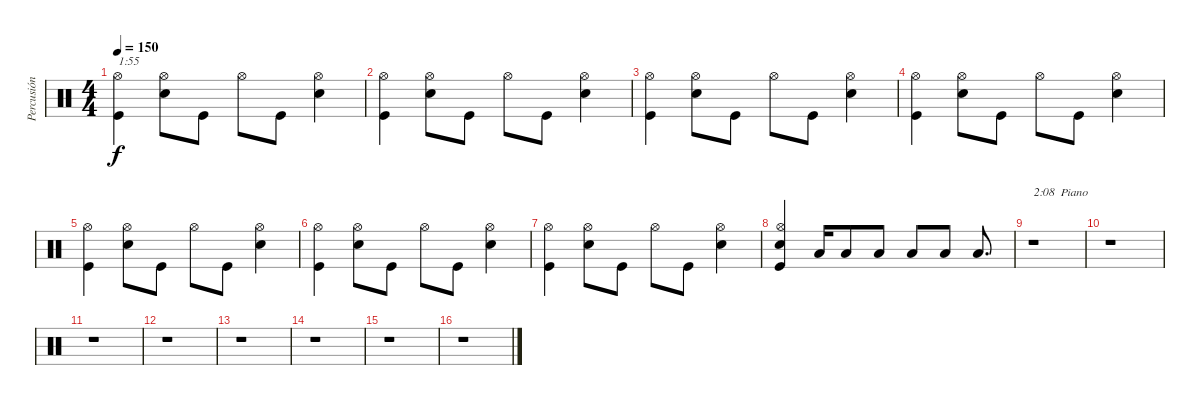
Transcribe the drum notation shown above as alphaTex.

\track ("Percusión" "Percusión") {instrument percussion}
\staff {score}
\articulation defaults
\ts (4 4)
\tempo 150
\clef neutral
\ks c
("Kick (hit)" "Hi-Hat (open)").4{txt "1:55" dy f} ("Snare (hit) 2" "Hi-Hat (open)").8 "Kick (hit)".8 "Hi-Hat (open)".8 "Kick (hit)".8 ("Snare (hit) 2" "Hi-Hat (open)").4 |
("Kick (hit)" "Hi-Hat (open)").4 ("Snare (hit) 2" "Hi-Hat (open)").8 "Kick (hit)".8 "Hi-Hat (open)".8 "Kick (hit)".8 ("Snare (hit) 2" "Hi-Hat (open)").4 |
("Kick (hit)" "Hi-Hat (open)").4 ("Snare (hit) 2" "Hi-Hat (open)").8 "Kick (hit)".8 "Hi-Hat (open)".8 "Kick (hit)".8 ("Snare (hit) 2" "Hi-Hat (open)").4 |
("Kick (hit)" "Hi-Hat (open)").4 ("Snare (hit) 2" "Hi-Hat (open)").8 "Kick (hit)".8 "Hi-Hat (open)".8 "Kick (hit)".8 ("Snare (hit) 2" "Hi-Hat (open)").4 |
("Kick (hit)" "Hi-Hat (open)").4 ("Snare (hit) 2" "Hi-Hat (open)").8 "Kick (hit)".8 "Hi-Hat (open)".8 "Kick (hit)".8 ("Snare (hit) 2" "Hi-Hat (open)").4 |
("Kick (hit)" "Hi-Hat (open)").4 ("Snare (hit) 2" "Hi-Hat (open)").8 "Kick (hit)".8 "Hi-Hat (open)".8 "Kick (hit)".8 ("Snare (hit) 2" "Hi-Hat (open)").4 |
("Kick (hit)" "Hi-Hat (open)").4 ("Snare (hit) 2" "Hi-Hat (open)").8 "Kick (hit)".8 "Hi-Hat (open)".8 "Kick (hit)".8 ("Snare (hit) 2" "Hi-Hat (open)").4 |
("Kick (hit)" "Snare (hit) 2" "Hi-Hat (open)").4 "Low Floor Tom (hit)".16 "Low Floor Tom (hit)".8 "Low Floor Tom (hit)".8 "Low Floor Tom (hit)".8 "Low Floor Tom (hit)".8 "Low Floor Tom (hit)".8{d} |
r.1{txt "2:08  Piano"} |
r.1 |
r.1 |
r.1 |
r.1 |
r.1 |
r.1 |
r.1
